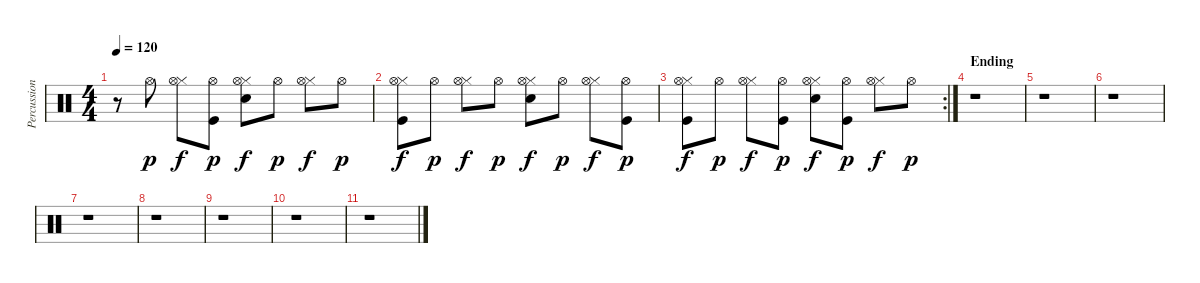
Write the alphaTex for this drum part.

\track ("Percussion" "Percussion") {instrument percussion}
\staff {score}
\articulation defaults
\ts (4 4)
\tempo 120
\clef neutral
\ks c
r.8{dy f} "Hi-Hat (open)".8{dy p} ("Hi-Hat (closed)" "Hi-Hat (open)").8{dy f} ("Hi-Hat (open)" "Kick (hit)").8{dy p} ("Hi-Hat (closed)" "Hi-Hat (open)" "Snare (hit) 2").8{dy f} "Hi-Hat (open)".8{dy p} ("Hi-Hat (closed)" "Hi-Hat (open)").8{dy f} "Hi-Hat (open)".8{dy p} |
("Hi-Hat (closed)" "Hi-Hat (open)" "Kick (hit)").8{dy f} "Hi-Hat (open)".8{dy p} ("Hi-Hat (closed)" "Hi-Hat (open)").8{dy f} "Hi-Hat (open)".8{dy p} ("Hi-Hat (closed)" "Hi-Hat (open)" "Snare (hit) 2").8{dy f} "Hi-Hat (open)".8{dy p} ("Hi-Hat (closed)" "Hi-Hat (open)").8{dy f} ("Hi-Hat (open)" "Kick (hit)").8{dy p} |
\rc 2
("Hi-Hat (closed)" "Hi-Hat (open)" "Kick (hit)").8{dy f} "Hi-Hat (open)".8{dy p} ("Hi-Hat (closed)" "Hi-Hat (open)").8{dy f} ("Hi-Hat (open)" "Kick (hit)").8{dy p} ("Hi-Hat (closed)" "Hi-Hat (open)" "Snare (hit) 2").8{dy f} ("Hi-Hat (open)" "Kick (hit)").8{dy p} ("Hi-Hat (closed)" "Hi-Hat (open)").8{dy f} "Hi-Hat (open)".8{dy p} |
\section ("" "Ending")
r.1 |
r.1 |
r.1 |
r.1 |
r.1 |
r.1 |
r.1 |
r.1
